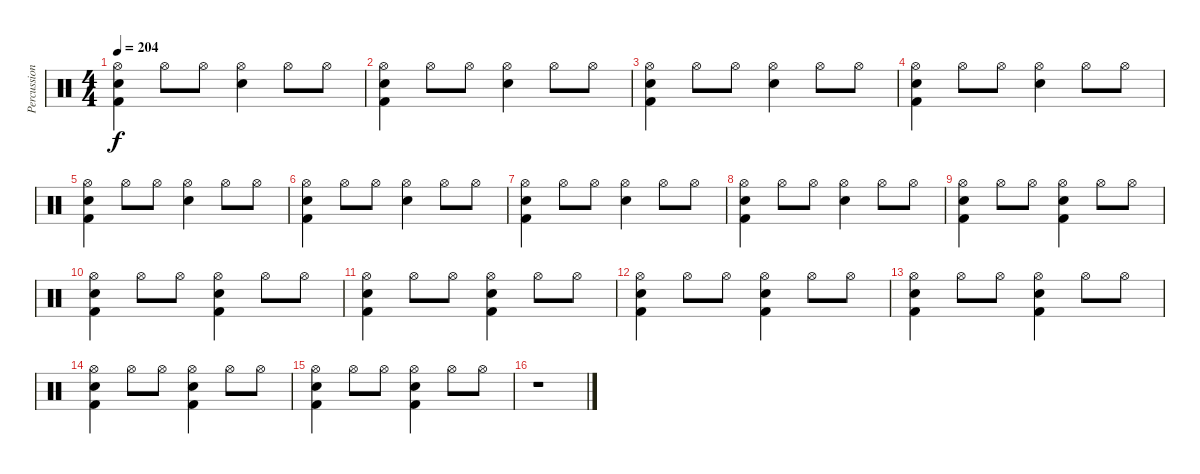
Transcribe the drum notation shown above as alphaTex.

\track ("Percussion" "Percussion") {instrument percussion}
\staff {score}
\articulation defaults
\ts (4 4)
\tempo 204
\clef neutral
\ks c
("Hi-Hat (open)" "Snare (hit) 2" "Kick (hit) 2").4{dy f} "Hi-Hat (open)".8 "Hi-Hat (open)".8 ("Hi-Hat (open)" "Snare (hit) 2").4 "Hi-Hat (open)".8 "Hi-Hat (open)".8 |
("Hi-Hat (open)" "Snare (hit) 2" "Kick (hit) 2").4 "Hi-Hat (open)".8 "Hi-Hat (open)".8 ("Hi-Hat (open)" "Snare (hit) 2").4 "Hi-Hat (open)".8 "Hi-Hat (open)".8 |
("Hi-Hat (open)" "Snare (hit) 2" "Kick (hit) 2").4 "Hi-Hat (open)".8 "Hi-Hat (open)".8 ("Hi-Hat (open)" "Snare (hit) 2").4 "Hi-Hat (open)".8 "Hi-Hat (open)".8 |
("Hi-Hat (open)" "Snare (hit) 2" "Kick (hit) 2").4 "Hi-Hat (open)".8 "Hi-Hat (open)".8 ("Hi-Hat (open)" "Snare (hit) 2").4 "Hi-Hat (open)".8 "Hi-Hat (open)".8 |
("Hi-Hat (open)" "Snare (hit) 2" "Kick (hit) 2").4 "Hi-Hat (open)".8 "Hi-Hat (open)".8 ("Hi-Hat (open)" "Snare (hit) 2").4 "Hi-Hat (open)".8 "Hi-Hat (open)".8 |
("Hi-Hat (open)" "Snare (hit) 2" "Kick (hit) 2").4 "Hi-Hat (open)".8 "Hi-Hat (open)".8 ("Hi-Hat (open)" "Snare (hit) 2").4 "Hi-Hat (open)".8 "Hi-Hat (open)".8 |
("Hi-Hat (open)" "Snare (hit) 2" "Kick (hit) 2").4 "Hi-Hat (open)".8 "Hi-Hat (open)".8 ("Hi-Hat (open)" "Snare (hit) 2").4 "Hi-Hat (open)".8 "Hi-Hat (open)".8 |
("Hi-Hat (open)" "Snare (hit) 2" "Kick (hit) 2").4 "Hi-Hat (open)".8 "Hi-Hat (open)".8 ("Hi-Hat (open)" "Snare (hit) 2").4 "Hi-Hat (open)".8 "Hi-Hat (open)".8 |
("Hi-Hat (open)" "Snare (hit) 2" "Kick (hit) 2").4 "Hi-Hat (open)".8 "Hi-Hat (open)".8 ("Hi-Hat (open)" "Snare (hit) 2" "Kick (hit) 2").4 "Hi-Hat (open)".8 "Hi-Hat (open)".8 |
("Hi-Hat (open)" "Snare (hit) 2" "Kick (hit) 2").4 "Hi-Hat (open)".8 "Hi-Hat (open)".8 ("Hi-Hat (open)" "Snare (hit) 2" "Kick (hit) 2").4 "Hi-Hat (open)".8 "Hi-Hat (open)".8 |
("Hi-Hat (open)" "Snare (hit) 2" "Kick (hit) 2").4 "Hi-Hat (open)".8 "Hi-Hat (open)".8 ("Hi-Hat (open)" "Snare (hit) 2" "Kick (hit) 2").4 "Hi-Hat (open)".8 "Hi-Hat (open)".8 |
("Hi-Hat (open)" "Snare (hit) 2" "Kick (hit) 2").4 "Hi-Hat (open)".8 "Hi-Hat (open)".8 ("Hi-Hat (open)" "Snare (hit) 2" "Kick (hit) 2").4 "Hi-Hat (open)".8 "Hi-Hat (open)".8 |
("Hi-Hat (open)" "Snare (hit) 2" "Kick (hit) 2").4 "Hi-Hat (open)".8 "Hi-Hat (open)".8 ("Hi-Hat (open)" "Snare (hit) 2" "Kick (hit) 2").4 "Hi-Hat (open)".8 "Hi-Hat (open)".8 |
("Hi-Hat (open)" "Snare (hit) 2" "Kick (hit) 2").4 "Hi-Hat (open)".8 "Hi-Hat (open)".8 ("Hi-Hat (open)" "Snare (hit) 2" "Kick (hit) 2").4 "Hi-Hat (open)".8 "Hi-Hat (open)".8 |
("Hi-Hat (open)" "Snare (hit) 2" "Kick (hit) 2").4 "Hi-Hat (open)".8 "Hi-Hat (open)".8 ("Hi-Hat (open)" "Snare (hit) 2" "Kick (hit) 2").4 "Hi-Hat (open)".8 "Hi-Hat (open)".8 |
r.1
